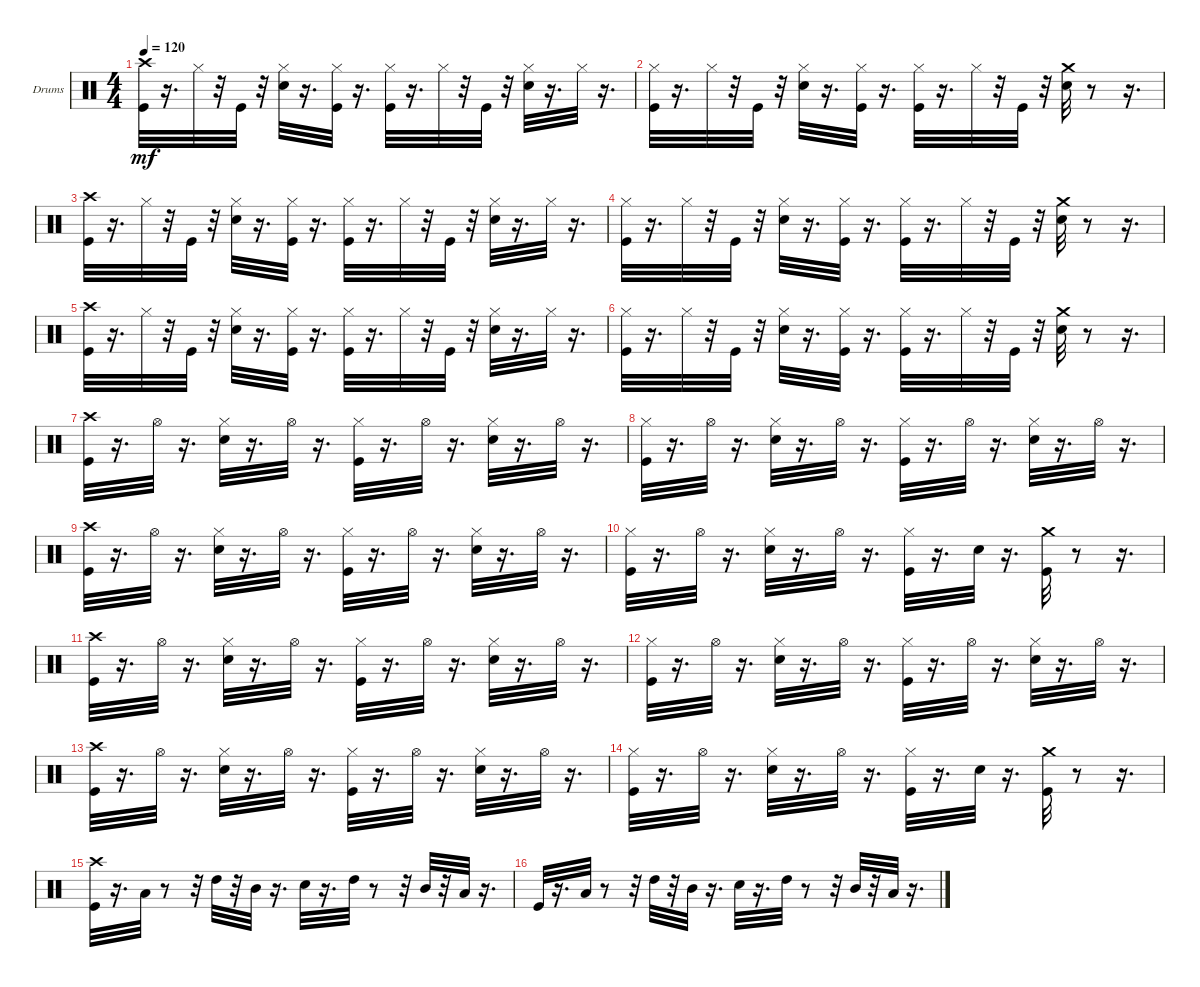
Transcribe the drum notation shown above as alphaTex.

\bracketExtendMode groupsimilarinstruments
\firstSystemTrackNameOrientation horizontal
\otherSystemsTrackNameOrientation horizontal
\track ("" "Drums") {instrument percussion}
\staff {score}
\articulation defaults
\ts (4 4)
\tempo 120
\clef neutral
\ks c
("Crash high (hit)" "Kick (hit)").32{dy mf} r.16{d} "Hi-Hat (closed)".32 r.32 "Kick (hit)".32 r.32 ("Hi-Hat (closed)" "Snare (hit) 2").32 r.16{d} ("Hi-Hat (closed)" "Kick (hit)").32 r.16{d} ("Hi-Hat (closed)" "Kick (hit)").32 r.16{d} "Hi-Hat (closed)".32 r.32 "Kick (hit)".32 r.32 ("Hi-Hat (closed)" "Snare (hit) 2").32 r.16{d} "Hi-Hat (closed)".32 r.16{d} |
("Hi-Hat (closed)" "Kick (hit)").32 r.16{d} "Hi-Hat (closed)".32 r.32 "Kick (hit)".32 r.32 ("Hi-Hat (closed)" "Snare (hit) 2").32 r.16{d} ("Hi-Hat (closed)" "Kick (hit)").32 r.16{d} ("Hi-Hat (closed)" "Kick (hit)").32 r.16{d} "Hi-Hat (closed)".32 r.32 "Kick (hit)".32 r.32 ("Crash medium (hit)" "Snare (hit) 2").32 r.8 r.16{d} |
("Crash high (hit)" "Kick (hit)").32 r.16{d} "Hi-Hat (closed)".32 r.32 "Kick (hit)".32 r.32 ("Hi-Hat (closed)" "Snare (hit) 2").32 r.16{d} ("Hi-Hat (closed)" "Kick (hit)").32 r.16{d} ("Hi-Hat (closed)" "Kick (hit)").32 r.16{d} "Hi-Hat (closed)".32 r.32 "Kick (hit)".32 r.32 ("Hi-Hat (closed)" "Snare (hit) 2").32 r.16{d} "Hi-Hat (closed)".32 r.16{d} |
("Hi-Hat (closed)" "Kick (hit)").32 r.16{d} "Hi-Hat (closed)".32 r.32 "Kick (hit)".32 r.32 ("Hi-Hat (closed)" "Snare (hit) 2").32 r.16{d} ("Hi-Hat (closed)" "Kick (hit)").32 r.16{d} ("Hi-Hat (closed)" "Kick (hit)").32 r.16{d} "Hi-Hat (closed)".32 r.32 "Kick (hit)".32 r.32 ("Crash medium (hit)" "Snare (hit) 2").32 r.8 r.16{d} |
("Crash high (hit)" "Kick (hit)").32 r.16{d} "Hi-Hat (closed)".32 r.32 "Kick (hit)".32 r.32 ("Hi-Hat (closed)" "Snare (hit) 2").32 r.16{d} ("Hi-Hat (closed)" "Kick (hit)").32 r.16{d} ("Hi-Hat (closed)" "Kick (hit)").32 r.16{d} "Hi-Hat (closed)".32 r.32 "Kick (hit)".32 r.32 ("Hi-Hat (closed)" "Snare (hit) 2").32 r.16{d} "Hi-Hat (closed)".32 r.16{d} |
("Hi-Hat (closed)" "Kick (hit)").32 r.16{d} "Hi-Hat (closed)".32 r.32 "Kick (hit)".32 r.32 ("Hi-Hat (closed)" "Snare (hit) 2").32 r.16{d} ("Hi-Hat (closed)" "Kick (hit)").32 r.16{d} ("Hi-Hat (closed)" "Kick (hit)").32 r.16{d} "Hi-Hat (closed)".32 r.32 "Kick (hit)".32 r.32 ("Crash medium (hit)" "Snare (hit) 2").32 r.8 r.16{d} |
("Crash high (hit)" "Kick (hit)").32 r.16{d} "Hi-Hat (open)".32 r.16{d} ("Snare (hit) 2" "Hi-Hat (closed)").32 r.16{d} "Hi-Hat (open)".32 r.16{d} ("Kick (hit)" "Hi-Hat (closed)").32 r.16{d} "Hi-Hat (open)".32 r.16{d} ("Snare (hit) 2" "Hi-Hat (closed)").32 r.16{d} "Hi-Hat (open)".32 r.16{d} |
("Hi-Hat (closed)" "Kick (hit)").32 r.16{d} "Hi-Hat (open)".32 r.16{d} ("Snare (hit) 2" "Hi-Hat (closed)").32 r.16{d} "Hi-Hat (open)".32 r.16{d} ("Kick (hit)" "Hi-Hat (closed)").32 r.16{d} "Hi-Hat (open)".32 r.16{d} ("Snare (hit) 2" "Hi-Hat (closed)").32 r.16{d} "Hi-Hat (open)".32 r.16{d} |
("Crash high (hit)" "Kick (hit)").32 r.16{d} "Hi-Hat (open)".32 r.16{d} ("Snare (hit) 2" "Hi-Hat (closed)").32 r.16{d} "Hi-Hat (open)".32 r.16{d} ("Kick (hit)" "Hi-Hat (closed)").32 r.16{d} "Hi-Hat (open)".32 r.16{d} ("Snare (hit) 2" "Hi-Hat (closed)").32 r.16{d} "Hi-Hat (open)".32 r.16{d} |
("Hi-Hat (closed)" "Kick (hit)").32 r.16{d} "Hi-Hat (open)".32 r.16{d} ("Snare (hit) 2" "Hi-Hat (closed)").32 r.16{d} "Hi-Hat (open)".32 r.16{d} ("Kick (hit)" "Hi-Hat (closed)").32 r.16{d} "Snare (hit) 2".32 r.16{d} ("Crash medium (hit)" "Kick (hit)").32 r.8 r.16{d} |
("Crash high (hit)" "Kick (hit)").32 r.16{d} "Hi-Hat (open)".32 r.16{d} ("Snare (hit) 2" "Hi-Hat (closed)").32 r.16{d} "Hi-Hat (open)".32 r.16{d} ("Kick (hit)" "Hi-Hat (closed)").32 r.16{d} "Hi-Hat (open)".32 r.16{d} ("Snare (hit) 2" "Hi-Hat (closed)").32 r.16{d} "Hi-Hat (open)".32 r.16{d} |
("Hi-Hat (closed)" "Kick (hit)").32 r.16{d} "Hi-Hat (open)".32 r.16{d} ("Snare (hit) 2" "Hi-Hat (closed)").32 r.16{d} "Hi-Hat (open)".32 r.16{d} ("Kick (hit)" "Hi-Hat (closed)").32 r.16{d} "Hi-Hat (open)".32 r.16{d} ("Snare (hit) 2" "Hi-Hat (closed)").32 r.16{d} "Hi-Hat (open)".32 r.16{d} |
("Crash high (hit)" "Kick (hit)").32 r.16{d} "Hi-Hat (open)".32 r.16{d} ("Snare (hit) 2" "Hi-Hat (closed)").32 r.16{d} "Hi-Hat (open)".32 r.16{d} ("Kick (hit)" "Hi-Hat (closed)").32 r.16{d} "Hi-Hat (open)".32 r.16{d} ("Snare (hit) 2" "Hi-Hat (closed)").32 r.16{d} "Hi-Hat (open)".32 r.16{d} |
("Hi-Hat (closed)" "Kick (hit)").32 r.16{d} "Hi-Hat (open)".32 r.16{d} ("Snare (hit) 2" "Hi-Hat (closed)").32 r.16{d} "Hi-Hat (open)".32 r.16{d} ("Kick (hit)" "Hi-Hat (closed)").32 r.16{d} "Snare (hit) 2".32 r.16{d} ("Crash medium (hit)" "Kick (hit)").32 r.8 r.16{d} |
("Crash high (hit)" "Kick (hit)").32 r.16{d} "Low Tom (hit)".32 r.8 r.32 "High Tom (hit)".32 r.32 "Mid Tom (hit)".32 r.16{d} "Snare (hit) 2".32 r.16{d} "High Tom (hit)".32 r.8 r.32 "Mid Tom (hit)".32 r.32 "Low Tom (hit)".32 r.16{d} |
"Kick (hit)".32 r.16{d} "Low Tom (hit)".32 r.8 r.32 "High Tom (hit)".32 r.32 "Mid Tom (hit)".32 r.16{d} "Snare (hit) 2".32 r.16{d} "High Tom (hit)".32 r.8 r.32 "Mid Tom (hit)".32 r.32 "Low Tom (hit)".32 r.16{d}
